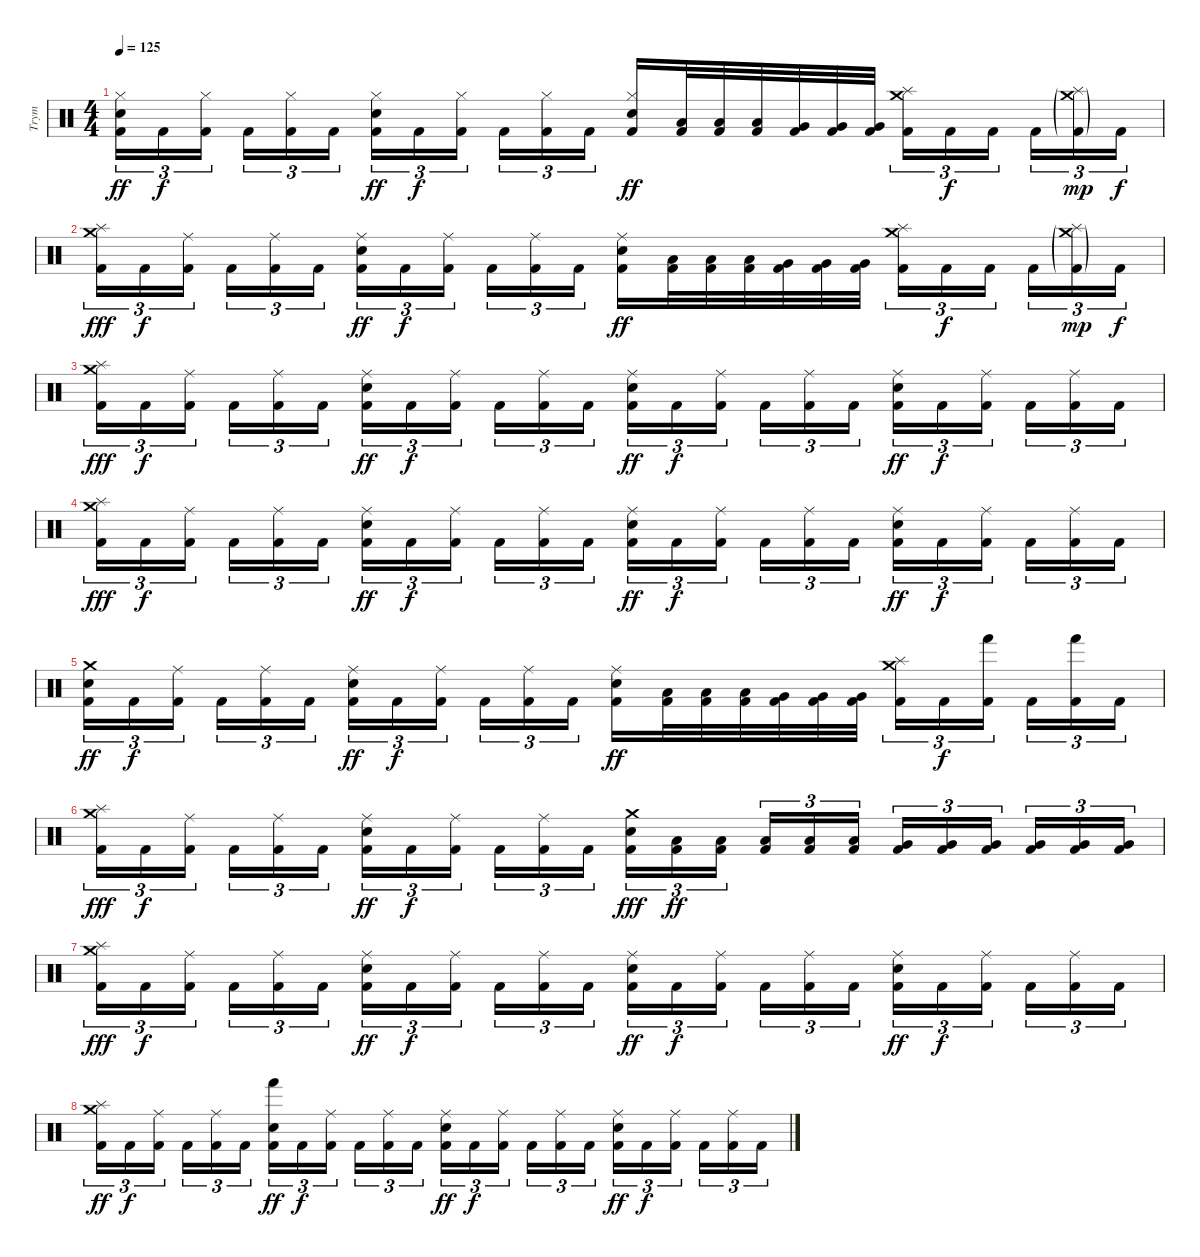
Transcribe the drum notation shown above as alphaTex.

\track ("Trym" "Trym") {instrument percussion}
\staff {score}
\articulation defaults
\ts (4 4)
\tempo 125
\clef neutral
\ks c
("Snare (hit) 2" "Hi-Hat (closed)" "Kick (hit) 2").16{tu (3 2) dy ff} "Kick (hit) 2".16{tu (3 2) dy f} ("Hi-Hat (closed)" "Kick (hit) 2").16{tu (3 2) beam splitsecondary} "Kick (hit) 2".16{tu (3 2)} ("Hi-Hat (closed)" "Kick (hit) 2").16{tu (3 2)} "Kick (hit) 2".16{tu (3 2)} ("Snare (hit) 2" "Hi-Hat (closed)" "Kick (hit) 2").16{tu (3 2) dy ff} "Kick (hit) 2".16{tu (3 2) dy f} ("Hi-Hat (closed)" "Kick (hit) 2").16{tu (3 2) beam splitsecondary} "Kick (hit) 2".16{tu (3 2)} ("Hi-Hat (closed)" "Kick (hit) 2").16{tu (3 2)} "Kick (hit) 2".16{tu (3 2)} ("Snare (hit) 2" "Hi-Hat (closed)" "Kick (hit) 2").16{dy ff} ("Low Tom (hit)" "Kick (hit) 2").32 ("Low Tom (hit)" "Kick (hit) 2").32 ("Low Tom (hit)" "Kick (hit) 2").32 ("Very Low Tom (hit)" "Kick (hit) 2").32 ("Very Low Tom (hit)" "Kick (hit) 2").32 ("Very Low Tom (hit)" "Kick (hit) 2").32 ("Crash medium (hit)" "Splash (hit)" "Kick (hit) 2").16{tu (3 2)} "Kick (hit) 2".16{tu (3 2) dy f} "Kick (hit) 2".16{tu (3 2) beam splitsecondary} "Kick (hit) 2".16{tu (3 2)} ("Crash medium (hit)"{g} "Splash (hit)"{g} "Kick (hit) 2"{g}).16{tu (3 2) dy mp} "Kick (hit) 2".16{tu (3 2) dy f} |
("Crash medium (hit)" "Splash (hit)" "Kick (hit) 2").16{tu (3 2) dy fff} "Kick (hit) 2".16{tu (3 2) dy f} ("Ride (middle)" "Kick (hit) 2").16{tu (3 2) beam splitsecondary} "Kick (hit) 2".16{tu (3 2)} ("Ride (middle)" "Kick (hit) 2").16{tu (3 2)} "Kick (hit) 2".16{tu (3 2)} ("Snare (hit) 2" "Ride (middle)" "Kick (hit) 2").16{tu (3 2) dy ff} "Kick (hit) 2".16{tu (3 2) dy f} ("Ride (middle)" "Kick (hit) 2").16{tu (3 2) beam splitsecondary} "Kick (hit) 2".16{tu (3 2)} ("Ride (middle)" "Kick (hit) 2").16{tu (3 2)} "Kick (hit) 2".16{tu (3 2)} ("Snare (hit) 2" "Ride (middle)" "Kick (hit) 2").16{dy ff} ("Low Tom (hit)" "Kick (hit) 2").32 ("Low Tom (hit)" "Kick (hit) 2").32 ("Low Tom (hit)" "Kick (hit) 2").32 ("Very Low Tom (hit)" "Kick (hit) 2").32 ("Very Low Tom (hit)" "Kick (hit) 2").32 ("Very Low Tom (hit)" "Kick (hit) 2").32 ("Crash medium (hit)" "Splash (hit)" "Kick (hit) 2").16{tu (3 2)} "Kick (hit) 2".16{tu (3 2) dy f} "Kick (hit) 2".16{tu (3 2) beam splitsecondary} "Kick (hit) 2".16{tu (3 2)} ("Crash medium (hit)"{g} "Splash (hit)"{g} "Kick (hit) 2"{g}).16{tu (3 2) dy mp} "Kick (hit) 2".16{tu (3 2) dy f} |
("Crash medium (hit)" "Splash (hit)" "Kick (hit) 2").16{tu (3 2) dy fff} "Kick (hit) 2".16{tu (3 2) dy f} ("Ride (middle)" "Kick (hit) 2").16{tu (3 2) beam splitsecondary} "Kick (hit) 2".16{tu (3 2)} ("Ride (middle)" "Kick (hit) 2").16{tu (3 2)} "Kick (hit) 2".16{tu (3 2)} ("Snare (hit) 2" "Ride (middle)" "Kick (hit) 2").16{tu (3 2) dy ff} "Kick (hit) 2".16{tu (3 2) dy f} ("Ride (middle)" "Kick (hit) 2").16{tu (3 2) beam splitsecondary} "Kick (hit) 2".16{tu (3 2)} ("Ride (middle)" "Kick (hit) 2").16{tu (3 2)} "Kick (hit) 2".16{tu (3 2)} ("Snare (hit) 2" "Ride (middle)" "Kick (hit) 2").16{tu (3 2) dy ff} "Kick (hit) 2".16{tu (3 2) dy f} ("Ride (middle)" "Kick (hit) 2").16{tu (3 2) beam splitsecondary} "Kick (hit) 2".16{tu (3 2)} ("Ride (middle)" "Kick (hit) 2").16{tu (3 2)} "Kick (hit) 2".16{tu (3 2)} ("Snare (hit) 2" "Ride (middle)" "Kick (hit) 2").16{tu (3 2) dy ff} "Kick (hit) 2".16{tu (3 2) dy f} ("Ride (middle)" "Kick (hit) 2").16{tu (3 2) beam splitsecondary} "Kick (hit) 2".16{tu (3 2)} ("Ride (middle)" "Kick (hit) 2").16{tu (3 2)} "Kick (hit) 2".16{tu (3 2)} |
("Crash medium (hit)" "Splash (hit)" "Kick (hit) 2").16{tu (3 2) dy fff} "Kick (hit) 2".16{tu (3 2) dy f} ("Ride (middle)" "Kick (hit) 2").16{tu (3 2) beam splitsecondary} "Kick (hit) 2".16{tu (3 2)} ("Ride (middle)" "Kick (hit) 2").16{tu (3 2)} "Kick (hit) 2".16{tu (3 2)} ("Snare (hit) 2" "Ride (middle)" "Kick (hit) 2").16{tu (3 2) dy ff} "Kick (hit) 2".16{tu (3 2) dy f} ("Ride (middle)" "Kick (hit) 2").16{tu (3 2) beam splitsecondary} "Kick (hit) 2".16{tu (3 2)} ("Ride (middle)" "Kick (hit) 2").16{tu (3 2)} "Kick (hit) 2".16{tu (3 2)} ("Snare (hit) 2" "Ride (middle)" "Kick (hit) 2").16{tu (3 2) dy ff} "Kick (hit) 2".16{tu (3 2) dy f} ("Ride (middle)" "Kick (hit) 2").16{tu (3 2) beam splitsecondary} "Kick (hit) 2".16{tu (3 2)} ("Ride (middle)" "Kick (hit) 2").16{tu (3 2)} "Kick (hit) 2".16{tu (3 2)} ("Snare (hit) 2" "Ride (middle)" "Kick (hit) 2").16{tu (3 2) dy ff} "Kick (hit) 2".16{tu (3 2) dy f} ("Ride (middle)" "Kick (hit) 2").16{tu (3 2) beam splitsecondary} "Kick (hit) 2".16{tu (3 2)} ("Ride (middle)" "Kick (hit) 2").16{tu (3 2)} "Kick (hit) 2".16{tu (3 2)} |
("Snare (hit) 2" "Crash medium (hit)" "Kick (hit) 2").16{tu (3 2) dy ff} "Kick (hit) 2".16{tu (3 2) dy f} ("Ride (middle)" "Kick (hit) 2").16{tu (3 2) beam splitsecondary} "Kick (hit) 2".16{tu (3 2)} ("Ride (middle)" "Kick (hit) 2").16{tu (3 2)} "Kick (hit) 2".16{tu (3 2)} ("Snare (hit) 2" "Ride (middle)" "Kick (hit) 2").16{tu (3 2) dy ff} "Kick (hit) 2".16{tu (3 2) dy f} ("Ride (middle)" "Kick (hit) 2").16{tu (3 2) beam splitsecondary} "Kick (hit) 2".16{tu (3 2)} ("Ride (middle)" "Kick (hit) 2").16{tu (3 2)} "Kick (hit) 2".16{tu (3 2)} ("Snare (hit) 2" "Ride (middle)" "Kick (hit) 2").16{dy ff} ("Low Tom (hit)" "Kick (hit) 2").32 ("Low Tom (hit)" "Kick (hit) 2").32 ("Low Tom (hit)" "Kick (hit) 2").32 ("Very Low Tom (hit)" "Kick (hit) 2").32 ("Very Low Tom (hit)" "Kick (hit) 2").32 ("Very Low Tom (hit)" "Kick (hit) 2").32 ("Crash medium (hit)" "Splash (hit)" "Kick (hit) 2").16{tu (3 2)} "Kick (hit) 2".16{tu (3 2) dy f} ("Hand (hit)" "Kick (hit) 2").16{tu (3 2) beam splitsecondary} "Kick (hit) 2".16{tu (3 2)} ("Hand (hit)" "Kick (hit) 2").16{tu (3 2)} "Kick (hit) 2".16{tu (3 2)} |
("Crash medium (hit)" "Splash (hit)" "Kick (hit) 2").16{tu (3 2) dy fff} "Kick (hit) 2".16{tu (3 2) dy f} ("Ride (middle)" "Kick (hit) 2").16{tu (3 2) beam splitsecondary} "Kick (hit) 2".16{tu (3 2)} ("Ride (middle)" "Kick (hit) 2").16{tu (3 2)} "Kick (hit) 2".16{tu (3 2)} ("Snare (hit) 2" "Ride (middle)" "Kick (hit) 2").16{tu (3 2) dy ff} "Kick (hit) 2".16{tu (3 2) dy f} ("Ride (middle)" "Kick (hit) 2").16{tu (3 2) beam splitsecondary} "Kick (hit) 2".16{tu (3 2)} ("Ride (middle)" "Kick (hit) 2").16{tu (3 2)} "Kick (hit) 2".16{tu (3 2)} ("Snare (hit) 2" "Crash medium (hit)" "Kick (hit) 2").16{tu (3 2) dy fff} ("Low Tom (hit)" "Kick (hit) 2").16{tu (3 2) dy ff} ("Low Tom (hit)" "Kick (hit) 2").16{tu (3 2) beam splitsecondary} ("Low Tom (hit)" "Kick (hit) 2").16{tu (3 2)} ("Low Tom (hit)" "Kick (hit) 2").16{tu (3 2)} ("Low Tom (hit)" "Kick (hit) 2").16{tu (3 2)} ("Very Low Tom (hit)" "Kick (hit) 2").16{tu (3 2)} ("Very Low Tom (hit)" "Kick (hit) 2").16{tu (3 2)} ("Very Low Tom (hit)" "Kick (hit) 2").16{tu (3 2) beam splitsecondary} ("Very Low Tom (hit)" "Kick (hit) 2").16{tu (3 2)} ("Very Low Tom (hit)" "Kick (hit) 2").16{tu (3 2)} ("Very Low Tom (hit)" "Kick (hit) 2").16{tu (3 2)} |
("Crash medium (hit)" "Splash (hit)" "Kick (hit) 2").16{tu (3 2) dy fff} "Kick (hit) 2".16{tu (3 2) dy f} ("Ride (middle)" "Kick (hit) 2").16{tu (3 2) beam splitsecondary} "Kick (hit) 2".16{tu (3 2)} ("Ride (middle)" "Kick (hit) 2").16{tu (3 2)} "Kick (hit) 2".16{tu (3 2)} ("Snare (hit) 2" "Ride (middle)" "Kick (hit) 2").16{tu (3 2) dy ff} "Kick (hit) 2".16{tu (3 2) dy f} ("Ride (middle)" "Kick (hit) 2").16{tu (3 2) beam splitsecondary} "Kick (hit) 2".16{tu (3 2)} ("Ride (middle)" "Kick (hit) 2").16{tu (3 2)} "Kick (hit) 2".16{tu (3 2)} ("Snare (hit) 2" "Ride (middle)" "Kick (hit) 2").16{tu (3 2) dy ff} "Kick (hit) 2".16{tu (3 2) dy f} ("Ride (middle)" "Kick (hit) 2").16{tu (3 2) beam splitsecondary} "Kick (hit) 2".16{tu (3 2)} ("Ride (middle)" "Kick (hit) 2").16{tu (3 2)} "Kick (hit) 2".16{tu (3 2)} ("Snare (hit) 2" "Ride (middle)" "Kick (hit) 2").16{tu (3 2) dy ff} "Kick (hit) 2".16{tu (3 2) dy f} ("Ride (middle)" "Kick (hit) 2").16{tu (3 2) beam splitsecondary} "Kick (hit) 2".16{tu (3 2)} ("Ride (middle)" "Kick (hit) 2").16{tu (3 2)} "Kick (hit) 2".16{tu (3 2)} |
("Crash medium (hit)" "Splash (hit)" "Kick (hit) 2").16{tu (3 2) dy ff} "Kick (hit) 2".16{tu (3 2) dy f} ("Ride (middle)" "Kick (hit) 2").16{tu (3 2) beam splitsecondary} "Kick (hit) 2".16{tu (3 2)} ("Ride (middle)" "Kick (hit) 2").16{tu (3 2)} "Kick (hit) 2".16{tu (3 2)} ("Snare (hit) 2" "Hand (hit)" "Kick (hit) 2").16{tu (3 2) dy ff} "Kick (hit) 2".16{tu (3 2) dy f} ("Ride (middle)" "Kick (hit) 2").16{tu (3 2) beam splitsecondary} "Kick (hit) 2".16{tu (3 2)} ("Ride (middle)" "Kick (hit) 2").16{tu (3 2)} "Kick (hit) 2".16{tu (3 2)} ("Snare (hit) 2" "Ride (middle)" "Kick (hit) 2").16{tu (3 2) dy ff} "Kick (hit) 2".16{tu (3 2) dy f} ("Ride (middle)" "Kick (hit) 2").16{tu (3 2) beam splitsecondary} "Kick (hit) 2".16{tu (3 2)} ("Ride (middle)" "Kick (hit) 2").16{tu (3 2)} "Kick (hit) 2".16{tu (3 2)} ("Snare (hit) 2" "Ride (middle)" "Kick (hit) 2").16{tu (3 2) dy ff} "Kick (hit) 2".16{tu (3 2) dy f} ("Ride (middle)" "Kick (hit) 2").16{tu (3 2) beam splitsecondary} "Kick (hit) 2".16{tu (3 2)} ("Ride (middle)" "Kick (hit) 2").16{tu (3 2)} "Kick (hit) 2".16{tu (3 2)}
